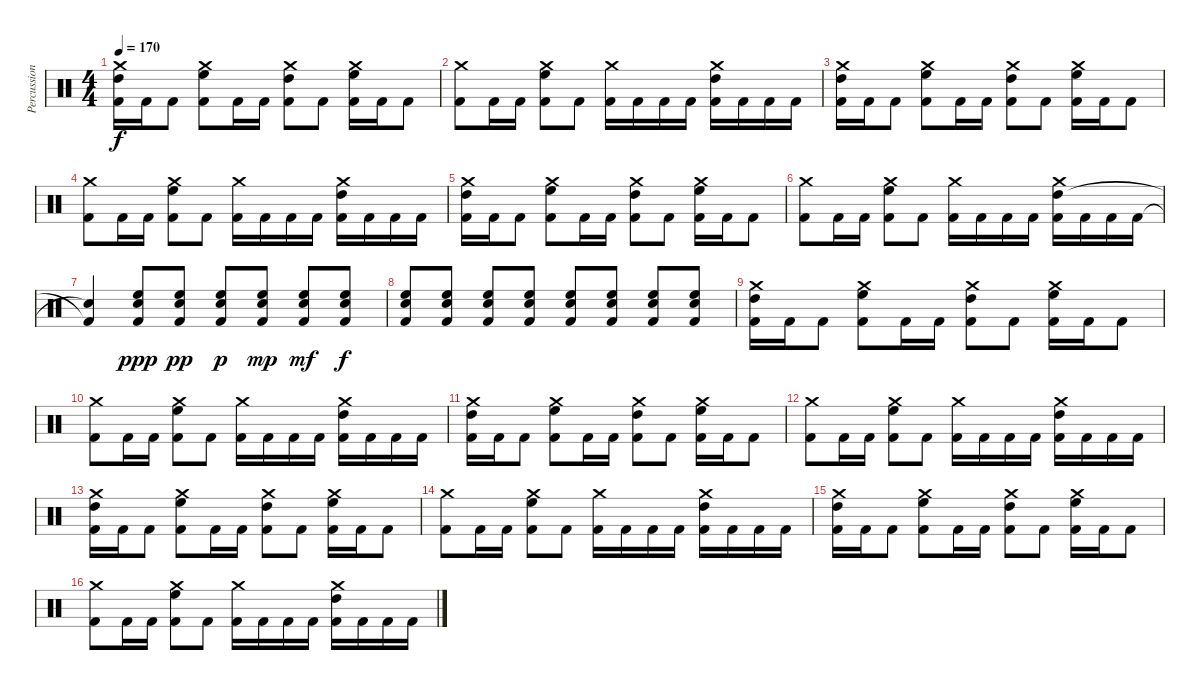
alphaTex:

\track ("Percussion" "Percussion") {instrument percussion}
\staff {score}
\articulation defaults
\ts (4 4)
\tempo 170
\clef neutral
\ks c
("Crash medium (hit)" "High Tom (hit)" "Kick (hit) 2").16{dy f} "Kick (hit) 2".16 "Kick (hit) 2".8 ("Crash medium (hit)" "High Floor Tom (hit)" "Kick (hit) 2").8 "Kick (hit) 2".16 "Kick (hit) 2".16 ("Crash medium (hit)" "High Tom (hit)" "Kick (hit) 2").8 "Kick (hit) 2".8 ("Crash medium (hit)" "High Floor Tom (hit)" "Kick (hit) 2").16 "Kick (hit) 2".16 "Kick (hit) 2".8 |
("Crash medium (hit)" "Kick (hit) 2").8 "Kick (hit) 2".16 "Kick (hit) 2".16 ("Crash medium (hit)" "High Floor Tom (hit)" "Kick (hit) 2").8 "Kick (hit) 2".8 ("Crash medium (hit)" "Kick (hit) 2").16 "Kick (hit) 2".16 "Kick (hit) 2".16 "Kick (hit) 2".16 ("Crash medium (hit)" "High Tom (hit)" "Kick (hit) 2").16 "Kick (hit) 2".16 "Kick (hit) 2".16 "Kick (hit) 2".16 |
("Crash medium (hit)" "High Tom (hit)" "Kick (hit) 2").16 "Kick (hit) 2".16 "Kick (hit) 2".8 ("Crash medium (hit)" "High Floor Tom (hit)" "Kick (hit) 2").8 "Kick (hit) 2".16 "Kick (hit) 2".16 ("Crash medium (hit)" "High Tom (hit)" "Kick (hit) 2").8 "Kick (hit) 2".8 ("Crash medium (hit)" "High Floor Tom (hit)" "Kick (hit) 2").16 "Kick (hit) 2".16 "Kick (hit) 2".8 |
("Crash medium (hit)" "Kick (hit) 2").8 "Kick (hit) 2".16 "Kick (hit) 2".16 ("Crash medium (hit)" "High Floor Tom (hit)" "Kick (hit) 2").8 "Kick (hit) 2".8 ("Crash medium (hit)" "Kick (hit) 2").16 "Kick (hit) 2".16 "Kick (hit) 2".16 "Kick (hit) 2".16 ("Crash medium (hit)" "High Tom (hit)" "Kick (hit) 2").16 "Kick (hit) 2".16 "Kick (hit) 2".16 "Kick (hit) 2".16 |
("Crash medium (hit)" "High Tom (hit)" "Kick (hit) 2").16 "Kick (hit) 2".16 "Kick (hit) 2".8 ("Crash medium (hit)" "High Floor Tom (hit)" "Kick (hit) 2").8 "Kick (hit) 2".16 "Kick (hit) 2".16 ("Crash medium (hit)" "High Tom (hit)" "Kick (hit) 2").8 "Kick (hit) 2".8 ("Crash medium (hit)" "High Floor Tom (hit)" "Kick (hit) 2").16 "Kick (hit) 2".16 "Kick (hit) 2".8 |
("Crash medium (hit)" "Kick (hit) 2").8 "Kick (hit) 2".16 "Kick (hit) 2".16 ("Crash medium (hit)" "High Floor Tom (hit)" "Kick (hit) 2").8 "Kick (hit) 2".8 ("Crash medium (hit)" "Kick (hit) 2").16 "Kick (hit) 2".16 "Kick (hit) 2".16 "Kick (hit) 2".16 ("Crash medium (hit)" "High Tom (hit)" "Kick (hit) 2").16 "Kick (hit) 2".16 "Kick (hit) 2".16 "Kick (hit) 2".16 |
("Snare (hit)"{t} "Kick (hit) 2"{t}).4 ("High Floor Tom (hit)" "Snare (hit) 2" "Kick (hit) 2").8{dy ppp} ("High Floor Tom (hit)" "Snare (hit) 2" "Kick (hit) 2").8{dy pp} ("High Floor Tom (hit)" "Snare (hit) 2" "Kick (hit) 2").8{dy p} ("High Floor Tom (hit)" "Snare (hit) 2" "Kick (hit) 2").8{dy mp} ("High Floor Tom (hit)" "Snare (hit) 2" "Kick (hit) 2").8{dy mf} ("High Floor Tom (hit)" "Snare (hit) 2" "Kick (hit) 2").8{dy f} |
("High Floor Tom (hit)" "Snare (hit) 2" "Kick (hit) 2").8 ("High Floor Tom (hit)" "Snare (hit) 2" "Kick (hit) 2").8 ("High Floor Tom (hit)" "Snare (hit) 2" "Kick (hit) 2").8 ("High Floor Tom (hit)" "Snare (hit) 2" "Kick (hit) 2").8 ("High Floor Tom (hit)" "Snare (hit) 2" "Kick (hit) 2").8 ("High Floor Tom (hit)" "Snare (hit) 2" "Kick (hit) 2").8 ("High Floor Tom (hit)" "Snare (hit) 2" "Kick (hit) 2").8 ("High Floor Tom (hit)" "Snare (hit) 2" "Kick (hit) 2").8 |
("Crash medium (hit)" "High Tom (hit)" "Kick (hit) 2").16 "Kick (hit) 2".16 "Kick (hit) 2".8 ("Crash medium (hit)" "High Floor Tom (hit)" "Kick (hit) 2").8 "Kick (hit) 2".16 "Kick (hit) 2".16 ("Crash medium (hit)" "High Tom (hit)" "Kick (hit) 2").8 "Kick (hit) 2".8 ("Crash medium (hit)" "High Floor Tom (hit)" "Kick (hit) 2").16 "Kick (hit) 2".16 "Kick (hit) 2".8 |
("Crash medium (hit)" "Kick (hit) 2").8 "Kick (hit) 2".16 "Kick (hit) 2".16 ("Crash medium (hit)" "High Floor Tom (hit)" "Kick (hit) 2").8 "Kick (hit) 2".8 ("Crash medium (hit)" "Kick (hit) 2").16 "Kick (hit) 2".16 "Kick (hit) 2".16 "Kick (hit) 2".16 ("Crash medium (hit)" "High Tom (hit)" "Kick (hit) 2").16 "Kick (hit) 2".16 "Kick (hit) 2".16 "Kick (hit) 2".16 |
("Crash medium (hit)" "High Tom (hit)" "Kick (hit) 2").16 "Kick (hit) 2".16 "Kick (hit) 2".8 ("Crash medium (hit)" "High Floor Tom (hit)" "Kick (hit) 2").8 "Kick (hit) 2".16 "Kick (hit) 2".16 ("Crash medium (hit)" "High Tom (hit)" "Kick (hit) 2").8 "Kick (hit) 2".8 ("Crash medium (hit)" "High Floor Tom (hit)" "Kick (hit) 2").16 "Kick (hit) 2".16 "Kick (hit) 2".8 |
("Crash medium (hit)" "Kick (hit) 2").8 "Kick (hit) 2".16 "Kick (hit) 2".16 ("Crash medium (hit)" "High Floor Tom (hit)" "Kick (hit) 2").8 "Kick (hit) 2".8 ("Crash medium (hit)" "Kick (hit) 2").16 "Kick (hit) 2".16 "Kick (hit) 2".16 "Kick (hit) 2".16 ("Crash medium (hit)" "High Tom (hit)" "Kick (hit) 2").16 "Kick (hit) 2".16 "Kick (hit) 2".16 "Kick (hit) 2".16 |
("Crash medium (hit)" "High Tom (hit)" "Kick (hit) 2").16 "Kick (hit) 2".16 "Kick (hit) 2".8 ("Crash medium (hit)" "High Floor Tom (hit)" "Kick (hit) 2").8 "Kick (hit) 2".16 "Kick (hit) 2".16 ("Crash medium (hit)" "High Tom (hit)" "Kick (hit) 2").8 "Kick (hit) 2".8 ("Crash medium (hit)" "High Floor Tom (hit)" "Kick (hit) 2").16 "Kick (hit) 2".16 "Kick (hit) 2".8 |
("Crash medium (hit)" "Kick (hit) 2").8 "Kick (hit) 2".16 "Kick (hit) 2".16 ("Crash medium (hit)" "High Floor Tom (hit)" "Kick (hit) 2").8 "Kick (hit) 2".8 ("Crash medium (hit)" "Kick (hit) 2").16 "Kick (hit) 2".16 "Kick (hit) 2".16 "Kick (hit) 2".16 ("Crash medium (hit)" "High Tom (hit)" "Kick (hit) 2").16 "Kick (hit) 2".16 "Kick (hit) 2".16 "Kick (hit) 2".16 |
("Crash medium (hit)" "High Tom (hit)" "Kick (hit) 2").16 "Kick (hit) 2".16 "Kick (hit) 2".8 ("Crash medium (hit)" "High Floor Tom (hit)" "Kick (hit) 2").8 "Kick (hit) 2".16 "Kick (hit) 2".16 ("Crash medium (hit)" "High Tom (hit)" "Kick (hit) 2").8 "Kick (hit) 2".8 ("Crash medium (hit)" "High Floor Tom (hit)" "Kick (hit) 2").16 "Kick (hit) 2".16 "Kick (hit) 2".8 |
("Crash medium (hit)" "Kick (hit) 2").8 "Kick (hit) 2".16 "Kick (hit) 2".16 ("Crash medium (hit)" "High Floor Tom (hit)" "Kick (hit) 2").8 "Kick (hit) 2".8 ("Crash medium (hit)" "Kick (hit) 2").16 "Kick (hit) 2".16 "Kick (hit) 2".16 "Kick (hit) 2".16 ("Crash medium (hit)" "High Tom (hit)" "Kick (hit) 2").16 "Kick (hit) 2".16 "Kick (hit) 2".16 "Kick (hit) 2".16
